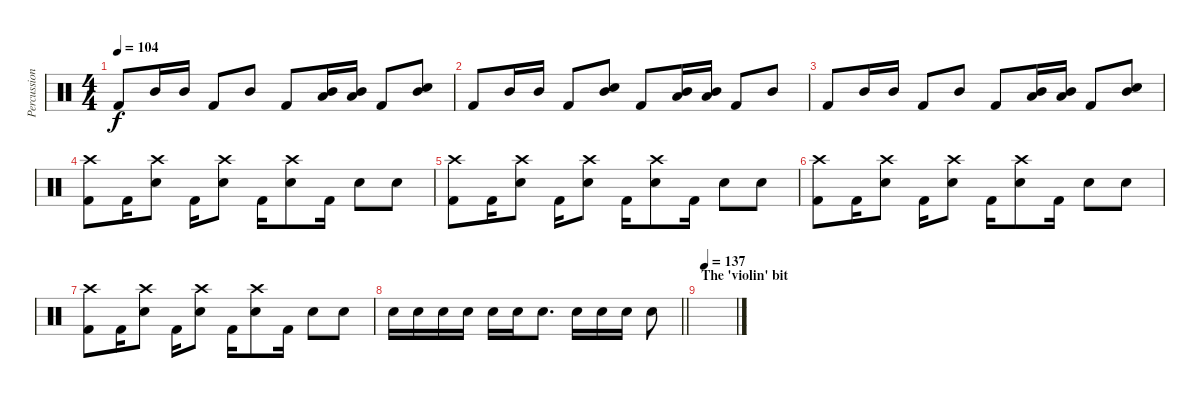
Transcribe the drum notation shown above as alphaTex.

\track ("Percussion" "Percussion") {instrument percussion}
\staff {score}
\articulation defaults
\ts (4 4)
\tempo 104
\clef neutral
\ks c "Kick (hit) 2".8{dy f} "Mid Tom (hit)".16 "Mid Tom (hit)".16 "Kick (hit) 2".8 "Mid Tom (hit)".8 "Kick (hit) 2".8
("Low Tom (hit)" "Mid Tom (hit)").16 ("Low Tom (hit)" "Mid Tom (hit)").16 "Kick (hit) 2".8 ("Mid Tom (hit)" "Snare (hit) 2").8 |
"Kick (hit) 2".8 "Mid Tom (hit)".16 "Mid Tom (hit)".16 "Kick (hit) 2".8 ("Mid Tom (hit)" "Snare (hit) 2").8 "Kick (hit) 2".8 ("Low Tom (hit)" "Mid Tom (hit)").16 ("Low Tom (hit)" "Mid Tom (hit)").16 "Kick (hit) 2".8 "Mid Tom (hit)".8 |
"Kick (hit) 2".8 "Mid Tom (hit)".16 "Mid Tom (hit)".16 "Kick (hit) 2".8 "Mid Tom (hit)".8 "Kick (hit) 2".8 ("Low Tom (hit)" "Mid Tom (hit)").16 ("Low Tom (hit)" "Mid Tom (hit)").16 "Kick (hit) 2".8 ("Mid Tom (hit)" "Snare (hit) 2").8 |
("Crash high (hit)" "Kick (hit) 2").8 "Kick (hit) 2".16 ("Crash high (hit)" "Snare (hit) 2").8 "Kick (hit) 2".16 ("Crash high (hit)" "Snare (hit) 2").8 "Kick (hit) 2".16 ("Crash high (hit)" "Snare (hit) 2").8 "Kick (hit) 2".16 "Snare (hit) 2".8 "Snare (hit) 2".8 |
("Crash high (hit)" "Kick (hit) 2").8 "Kick (hit) 2".16 ("Crash high (hit)" "Snare (hit) 2").8 "Kick (hit) 2".16 ("Crash high (hit)" "Snare (hit) 2").8 "Kick (hit) 2".16 ("Crash high (hit)" "Snare (hit) 2").8 "Kick (hit) 2".16 "Snare (hit) 2".8 "Snare (hit) 2".8 |
("Crash high (hit)" "Kick (hit) 2").8 "Kick (hit) 2".16 ("Crash high (hit)" "Snare (hit) 2").8 "Kick (hit) 2".16 ("Crash high (hit)" "Snare (hit) 2").8 "Kick (hit) 2".16 ("Crash high (hit)" "Snare (hit) 2").8 "Kick (hit) 2".16 "Snare (hit) 2".8 "Snare (hit) 2".8 |
("Crash high (hit)" "Kick (hit) 2").8 "Kick (hit) 2".16 ("Crash high (hit)" "Snare (hit) 2").8 "Kick (hit) 2".16 ("Crash high (hit)" "Snare (hit) 2").8 "Kick (hit) 2".16 ("Crash high (hit)" "Snare (hit) 2").8 "Kick (hit) 2".16 "Snare (hit) 2".8 "Snare (hit) 2".8 |
\barLineRight lightlight "Snare (hit) 2".16 "Snare (hit) 2".16 "Snare (hit) 2".16 "Snare (hit) 2".16 "Snare (hit) 2".16 "Snare (hit) 2".16 "Snare (hit) 2".8{d} "Snare (hit) 2".16 "Snare (hit) 2".16 "Snare (hit) 2".16 "Snare (hit) 2".8
|
\section ("" "The 'violin' bit")
\tempo (137 0.125)
